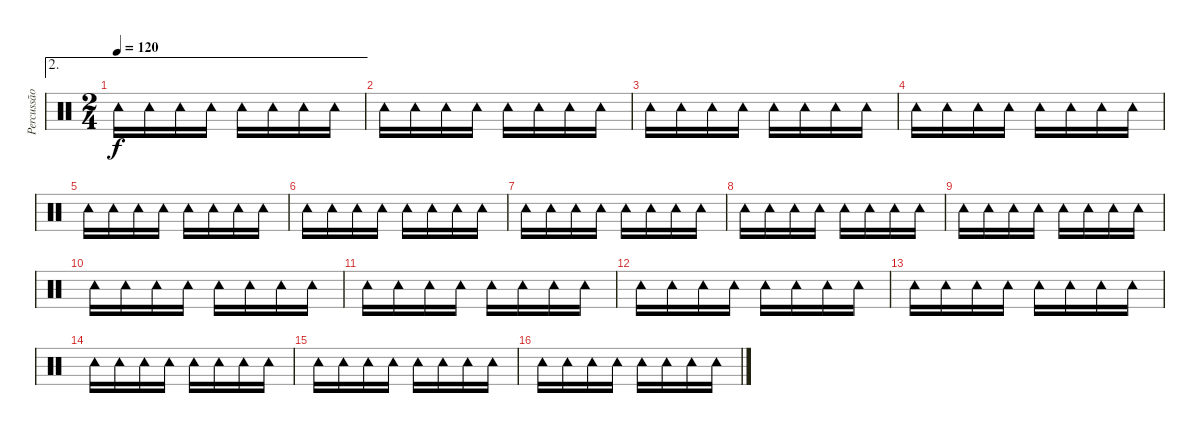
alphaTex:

\track ("Percussão" "Percussão") {instrument percussion}
\staff {score}
\articulation defaults
\ae 2
\ts (2 4)
\tempo 120
\clef neutral
\ks c "Tambourine (hit)".16{dy f} "Tambourine (hit)".16 "Tambourine (hit)".16 "Tambourine (hit)".16 "Tambourine (hit)".16 "Tambourine (hit)".16 "Tambourine (hit)".16 "Tambourine (hit)".16
|
"Tambourine (hit)".16 "Tambourine (hit)".16 "Tambourine (hit)".16 "Tambourine (hit)".16 "Tambourine (hit)".16 "Tambourine (hit)".16 "Tambourine (hit)".16 "Tambourine (hit)".16 |
"Tambourine (hit)".16 "Tambourine (hit)".16 "Tambourine (hit)".16 "Tambourine (hit)".16 "Tambourine (hit)".16 "Tambourine (hit)".16 "Tambourine (hit)".16 "Tambourine (hit)".16 |
"Tambourine (hit)".16 "Tambourine (hit)".16 "Tambourine (hit)".16 "Tambourine (hit)".16 "Tambourine (hit)".16 "Tambourine (hit)".16 "Tambourine (hit)".16 "Tambourine (hit)".16 |
"Tambourine (hit)".16 "Tambourine (hit)".16 "Tambourine (hit)".16 "Tambourine (hit)".16 "Tambourine (hit)".16 "Tambourine (hit)".16 "Tambourine (hit)".16 "Tambourine (hit)".16 |
"Tambourine (hit)".16 "Tambourine (hit)".16 "Tambourine (hit)".16 "Tambourine (hit)".16 "Tambourine (hit)".16 "Tambourine (hit)".16 "Tambourine (hit)".16 "Tambourine (hit)".16 |
"Tambourine (hit)".16 "Tambourine (hit)".16 "Tambourine (hit)".16 "Tambourine (hit)".16 "Tambourine (hit)".16 "Tambourine (hit)".16 "Tambourine (hit)".16 "Tambourine (hit)".16 |
"Tambourine (hit)".16 "Tambourine (hit)".16 "Tambourine (hit)".16 "Tambourine (hit)".16 "Tambourine (hit)".16 "Tambourine (hit)".16 "Tambourine (hit)".16 "Tambourine (hit)".16 |
"Tambourine (hit)".16 "Tambourine (hit)".16 "Tambourine (hit)".16 "Tambourine (hit)".16 "Tambourine (hit)".16 "Tambourine (hit)".16 "Tambourine (hit)".16 "Tambourine (hit)".16 |
"Tambourine (hit)".16 "Tambourine (hit)".16 "Tambourine (hit)".16 "Tambourine (hit)".16 "Tambourine (hit)".16 "Tambourine (hit)".16 "Tambourine (hit)".16 "Tambourine (hit)".16 |
"Tambourine (hit)".16 "Tambourine (hit)".16 "Tambourine (hit)".16 "Tambourine (hit)".16 "Tambourine (hit)".16 "Tambourine (hit)".16 "Tambourine (hit)".16 "Tambourine (hit)".16 |
"Tambourine (hit)".16 "Tambourine (hit)".16 "Tambourine (hit)".16 "Tambourine (hit)".16 "Tambourine (hit)".16 "Tambourine (hit)".16 "Tambourine (hit)".16 "Tambourine (hit)".16 |
"Tambourine (hit)".16 "Tambourine (hit)".16 "Tambourine (hit)".16 "Tambourine (hit)".16 "Tambourine (hit)".16 "Tambourine (hit)".16 "Tambourine (hit)".16 "Tambourine (hit)".16 |
"Tambourine (hit)".16 "Tambourine (hit)".16 "Tambourine (hit)".16 "Tambourine (hit)".16 "Tambourine (hit)".16 "Tambourine (hit)".16 "Tambourine (hit)".16 "Tambourine (hit)".16 |
"Tambourine (hit)".16 "Tambourine (hit)".16 "Tambourine (hit)".16 "Tambourine (hit)".16 "Tambourine (hit)".16 "Tambourine (hit)".16 "Tambourine (hit)".16 "Tambourine (hit)".16 |
"Tambourine (hit)".16 "Tambourine (hit)".16 "Tambourine (hit)".16 "Tambourine (hit)".16 "Tambourine (hit)".16 "Tambourine (hit)".16 "Tambourine (hit)".16 "Tambourine (hit)".16
